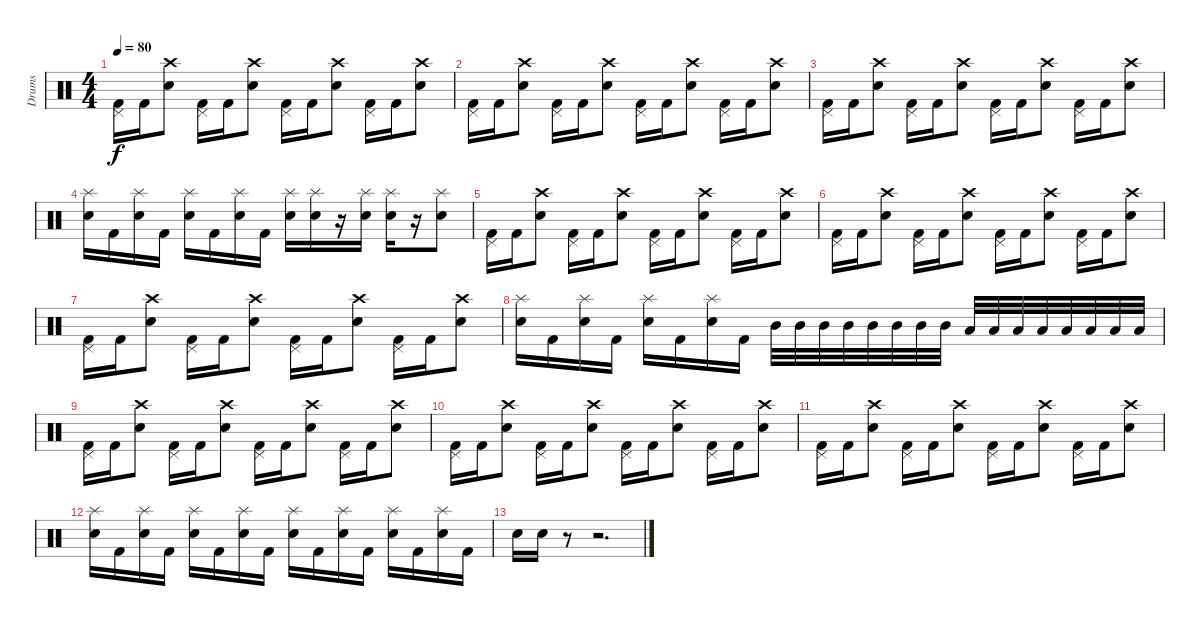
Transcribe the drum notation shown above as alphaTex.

\track ("Drums" "Drums") {instrument percussion}
\staff {score}
\articulation defaults
\ts (4 4)
\tempo 80
\clef neutral
\ks c
("Kick (hit) 2" "Pedal Hi-Hat (hit)").16{dy f} "Kick (hit) 2".16 ("Electric Snare (hit)" "Crash high (hit)").8 ("Kick (hit) 2" "Pedal Hi-Hat (hit)").16 "Kick (hit) 2".16 ("Electric Snare (hit)" "Crash high (hit)").8 ("Kick (hit) 2" "Pedal Hi-Hat (hit)").16 "Kick (hit) 2".16 ("Electric Snare (hit)" "Crash high (hit)").8 ("Kick (hit) 2" "Pedal Hi-Hat (hit)").16 "Kick (hit) 2".16 ("Electric Snare (hit)" "Crash high (hit)").8 |
("Kick (hit) 2" "Pedal Hi-Hat (hit)").16 "Kick (hit) 2".16 ("Electric Snare (hit)" "Crash high (hit)").8 ("Kick (hit) 2" "Pedal Hi-Hat (hit)").16 "Kick (hit) 2".16 ("Electric Snare (hit)" "Crash high (hit)").8 ("Kick (hit) 2" "Pedal Hi-Hat (hit)").16 "Kick (hit) 2".16 ("Electric Snare (hit)" "Crash high (hit)").8 ("Kick (hit) 2" "Pedal Hi-Hat (hit)").16 "Kick (hit) 2".16 ("Electric Snare (hit)" "Crash high (hit)").8 |
("Kick (hit) 2" "Pedal Hi-Hat (hit)").16 "Kick (hit) 2".16 ("Electric Snare (hit)" "Crash high (hit)").8 ("Kick (hit) 2" "Pedal Hi-Hat (hit)").16 "Kick (hit) 2".16 ("Electric Snare (hit)" "Crash high (hit)").8 ("Kick (hit) 2" "Pedal Hi-Hat (hit)").16 "Kick (hit) 2".16 ("Electric Snare (hit)" "Crash high (hit)").8 ("Kick (hit) 2" "Pedal Hi-Hat (hit)").16 "Kick (hit) 2".16 ("Electric Snare (hit)" "Crash high (hit)").8 |
("Electric Snare (hit)" "Splash (hit)").16 "Kick (hit) 2".16 ("Electric Snare (hit)" "Splash (hit)").16 "Kick (hit) 2".16 ("Electric Snare (hit)" "Splash (hit)").16 "Kick (hit) 2".16 ("Electric Snare (hit)" "Splash (hit)").16 "Kick (hit) 2".16 ("Electric Snare (hit)" "Splash (hit)").16 ("Electric Snare (hit)" "Splash (hit)").16 r.16 ("Electric Snare (hit)" "Splash (hit)").16 ("Electric Snare (hit)" "Splash (hit)").16 r.16 ("Electric Snare (hit)" "Splash (hit)").8 |
("Kick (hit) 2" "Pedal Hi-Hat (hit)").16 "Kick (hit) 2".16 ("Electric Snare (hit)" "Crash high (hit)").8 ("Kick (hit) 2" "Pedal Hi-Hat (hit)").16 "Kick (hit) 2".16 ("Electric Snare (hit)" "Crash high (hit)").8 ("Kick (hit) 2" "Pedal Hi-Hat (hit)").16 "Kick (hit) 2".16 ("Electric Snare (hit)" "Crash high (hit)").8 ("Kick (hit) 2" "Pedal Hi-Hat (hit)").16 "Kick (hit) 2".16 ("Electric Snare (hit)" "Crash high (hit)").8 |
("Kick (hit) 2" "Pedal Hi-Hat (hit)").16 "Kick (hit) 2".16 ("Electric Snare (hit)" "Crash high (hit)").8 ("Kick (hit) 2" "Pedal Hi-Hat (hit)").16 "Kick (hit) 2".16 ("Electric Snare (hit)" "Crash high (hit)").8 ("Kick (hit) 2" "Pedal Hi-Hat (hit)").16 "Kick (hit) 2".16 ("Electric Snare (hit)" "Crash high (hit)").8 ("Kick (hit) 2" "Pedal Hi-Hat (hit)").16 "Kick (hit) 2".16 ("Electric Snare (hit)" "Crash high (hit)").8 |
("Kick (hit) 2" "Pedal Hi-Hat (hit)").16 "Kick (hit) 2".16 ("Electric Snare (hit)" "Crash high (hit)").8 ("Kick (hit) 2" "Pedal Hi-Hat (hit)").16 "Kick (hit) 2".16 ("Electric Snare (hit)" "Crash high (hit)").8 ("Kick (hit) 2" "Pedal Hi-Hat (hit)").16 "Kick (hit) 2".16 ("Electric Snare (hit)" "Crash high (hit)").8 ("Kick (hit) 2" "Pedal Hi-Hat (hit)").16 "Kick (hit) 2".16 ("Electric Snare (hit)" "Crash high (hit)").8 |
("Electric Snare (hit)" "Splash (hit)").16 "Kick (hit) 2".16 ("Electric Snare (hit)" "Splash (hit)").16 "Kick (hit) 2".16 ("Electric Snare (hit)" "Splash (hit)").16 "Kick (hit) 2".16 ("Electric Snare (hit)" "Splash (hit)").16 "Kick (hit) 2".16 "Mid Tom (hit)".32 "Mid Tom (hit)".32 "Mid Tom (hit)".32 "Mid Tom (hit)".32 "Mid Tom (hit)".32 "Mid Tom (hit)".32 "Mid Tom (hit)".32 "Mid Tom (hit)".32 "Low Tom (hit)".32 "Low Tom (hit)".32 "Low Tom (hit)".32 "Low Tom (hit)".32 "Low Tom (hit)".32 "Low Tom (hit)".32 "Low Tom (hit)".32 "Low Tom (hit)".32 |
("Kick (hit) 2" "Pedal Hi-Hat (hit)").16 "Kick (hit) 2".16 ("Electric Snare (hit)" "Crash high (hit)").8 ("Kick (hit) 2" "Pedal Hi-Hat (hit)").16 "Kick (hit) 2".16 ("Electric Snare (hit)" "Crash high (hit)").8 ("Kick (hit) 2" "Pedal Hi-Hat (hit)").16 "Kick (hit) 2".16 ("Electric Snare (hit)" "Crash high (hit)").8 ("Kick (hit) 2" "Pedal Hi-Hat (hit)").16 "Kick (hit) 2".16 ("Electric Snare (hit)" "Crash high (hit)").8 |
("Kick (hit) 2" "Pedal Hi-Hat (hit)").16 "Kick (hit) 2".16 ("Electric Snare (hit)" "Crash high (hit)").8 ("Kick (hit) 2" "Pedal Hi-Hat (hit)").16 "Kick (hit) 2".16 ("Electric Snare (hit)" "Crash high (hit)").8 ("Kick (hit) 2" "Pedal Hi-Hat (hit)").16 "Kick (hit) 2".16 ("Electric Snare (hit)" "Crash high (hit)").8 ("Kick (hit) 2" "Pedal Hi-Hat (hit)").16 "Kick (hit) 2".16 ("Electric Snare (hit)" "Crash high (hit)").8 |
("Kick (hit) 2" "Pedal Hi-Hat (hit)").16 "Kick (hit) 2".16 ("Electric Snare (hit)" "Crash high (hit)").8 ("Kick (hit) 2" "Pedal Hi-Hat (hit)").16 "Kick (hit) 2".16 ("Electric Snare (hit)" "Crash high (hit)").8 ("Kick (hit) 2" "Pedal Hi-Hat (hit)").16 "Kick (hit) 2".16 ("Electric Snare (hit)" "Crash high (hit)").8 ("Kick (hit) 2" "Pedal Hi-Hat (hit)").16 "Kick (hit) 2".16 ("Electric Snare (hit)" "Crash high (hit)").8 |
("Electric Snare (hit)" "Splash (hit)").16 "Kick (hit) 2".16 ("Electric Snare (hit)" "Splash (hit)").16 "Kick (hit) 2".16 ("Electric Snare (hit)" "Splash (hit)").16 "Kick (hit) 2".16 ("Electric Snare (hit)" "Splash (hit)").16 "Kick (hit) 2".16 ("Electric Snare (hit)" "Splash (hit)").16 "Kick (hit) 2".16 ("Electric Snare (hit)" "Splash (hit)").16 "Kick (hit) 2".16 ("Electric Snare (hit)" "Splash (hit)").16 "Kick (hit) 2".16 ("Electric Snare (hit)" "Splash (hit)").16 "Kick (hit) 2".16 |
"Electric Snare (hit)".16 "Electric Snare (hit)".16 r.8 r.2{d}
